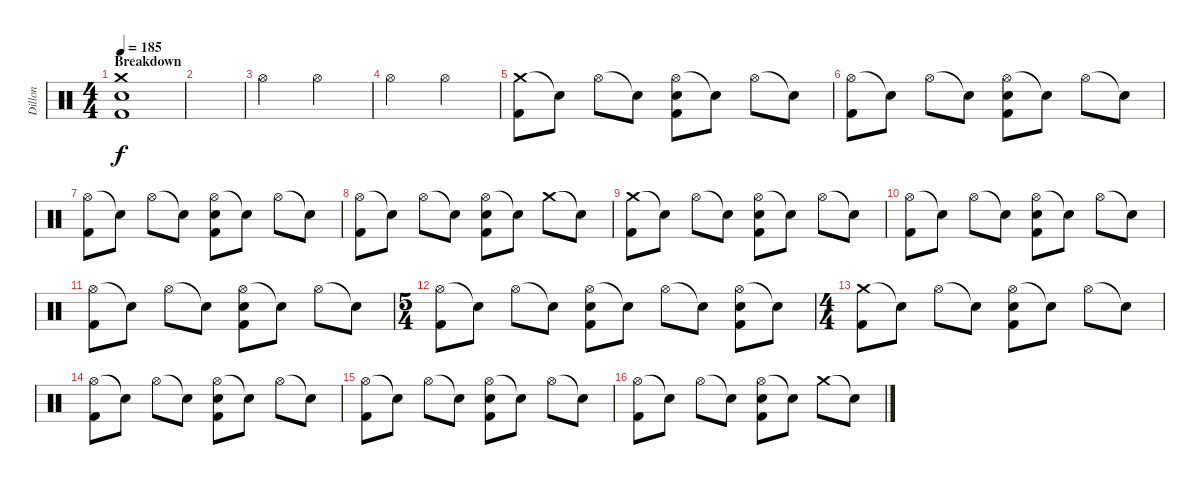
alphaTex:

\track ("Dillon" "Dillon") {instrument percussion}
\staff {score}
\articulation defaults
\ts (4 4)
\section ("" "Breakdown")
\tempo 185
\clef neutral
\ks c
("Crash medium (hit)" "Electric Snare (hit)" "Kick (hit) 2").1{dy f} |
|
"Hi-Hat (open)".2 "Hi-Hat (open)".2 |
"Hi-Hat (open)".2 "Hi-Hat (open)".2 |
("Crash medium (hit)" "Kick (hit) 2").8 "Snare (hit)"{t}.8 "Hi-Hat (open)".8 "Snare (hit)"{t}.8 ("Hi-Hat (open)" "Electric Snare (hit)" "Kick (hit) 2").8 "Snare (hit)"{t}.8 "Hi-Hat (open)".8 "Snare (hit)"{t}.8 |
("Hi-Hat (open)" "Kick (hit) 2").8 "Snare (hit)"{t}.8 "Hi-Hat (open)".8 "Snare (hit)"{t}.8 ("Hi-Hat (open)" "Electric Snare (hit)" "Kick (hit) 2").8 "Snare (hit)"{t}.8 "Hi-Hat (open)".8 "Snare (hit)"{t}.8 |
("Hi-Hat (open)" "Kick (hit) 2").8 "Snare (hit)"{t}.8 "Hi-Hat (open)".8 "Snare (hit)"{t}.8 ("Hi-Hat (open)" "Electric Snare (hit)" "Kick (hit) 2").8 "Snare (hit)"{t}.8 "Hi-Hat (open)".8 "Snare (hit)"{t}.8 |
("Hi-Hat (open)" "Kick (hit) 2").8 "Snare (hit)"{t}.8 "Hi-Hat (open)".8 "Snare (hit)"{t}.8 ("Hi-Hat (open)" "Electric Snare (hit)" "Kick (hit) 2").8 "Snare (hit)"{t}.8 "Crash medium (hit)".8 "Snare (hit)"{t}.8 |
("Crash medium (hit)" "Kick (hit) 2").8 "Snare (hit)"{t}.8 "Hi-Hat (open)".8 "Snare (hit)"{t}.8 ("Hi-Hat (open)" "Electric Snare (hit)" "Kick (hit) 2").8 "Snare (hit)"{t}.8 "Hi-Hat (open)".8 "Snare (hit)"{t}.8 |
("Hi-Hat (open)" "Kick (hit) 2").8 "Snare (hit)"{t}.8 "Hi-Hat (open)".8 "Snare (hit)"{t}.8 ("Hi-Hat (open)" "Electric Snare (hit)" "Kick (hit) 2").8 "Snare (hit)"{t}.8 "Hi-Hat (open)".8 "Snare (hit)"{t}.8 |
("Hi-Hat (open)" "Kick (hit) 2").8 "Snare (hit)"{t}.8 "Hi-Hat (open)".8 "Snare (hit)"{t}.8 ("Hi-Hat (open)" "Electric Snare (hit)" "Kick (hit) 2").8 "Snare (hit)"{t}.8 "Hi-Hat (open)".8 "Snare (hit)"{t}.8 |
\ts (5 4)
("Hi-Hat (open)" "Kick (hit) 2").8 "Snare (hit)"{t}.8 "Hi-Hat (open)".8 "Snare (hit)"{t}.8 ("Hi-Hat (open)" "Electric Snare (hit)" "Kick (hit) 2").8 "Snare (hit)"{t}.8 "Hi-Hat (open)".8 "Snare (hit)"{t}.8 ("Hi-Hat (open)" "Electric Snare (hit)" "Kick (hit) 2").8 "Snare (hit)"{t}.8 |
\ts (4 4)
("Crash medium (hit)" "Kick (hit) 2").8 "Snare (hit)"{t}.8 "Hi-Hat (open)".8 "Snare (hit)"{t}.8 ("Hi-Hat (open)" "Electric Snare (hit)" "Kick (hit) 2").8 "Snare (hit)"{t}.8 "Hi-Hat (open)".8 "Snare (hit)"{t}.8 |
("Hi-Hat (open)" "Kick (hit) 2").8 "Snare (hit)"{t}.8 "Hi-Hat (open)".8 "Snare (hit)"{t}.8 ("Hi-Hat (open)" "Electric Snare (hit)" "Kick (hit) 2").8 "Snare (hit)"{t}.8 "Hi-Hat (open)".8 "Snare (hit)"{t}.8 |
("Hi-Hat (open)" "Kick (hit) 2").8 "Snare (hit)"{t}.8 "Hi-Hat (open)".8 "Snare (hit)"{t}.8 ("Hi-Hat (open)" "Electric Snare (hit)" "Kick (hit) 2").8 "Snare (hit)"{t}.8 "Hi-Hat (open)".8 "Snare (hit)"{t}.8 |
("Hi-Hat (open)" "Kick (hit) 2").8 "Snare (hit)"{t}.8 "Hi-Hat (open)".8 "Snare (hit)"{t}.8 ("Hi-Hat (open)" "Electric Snare (hit)" "Kick (hit) 2").8 "Snare (hit)"{t}.8 "Crash medium (hit)".8 "Snare (hit)"{t}.8
